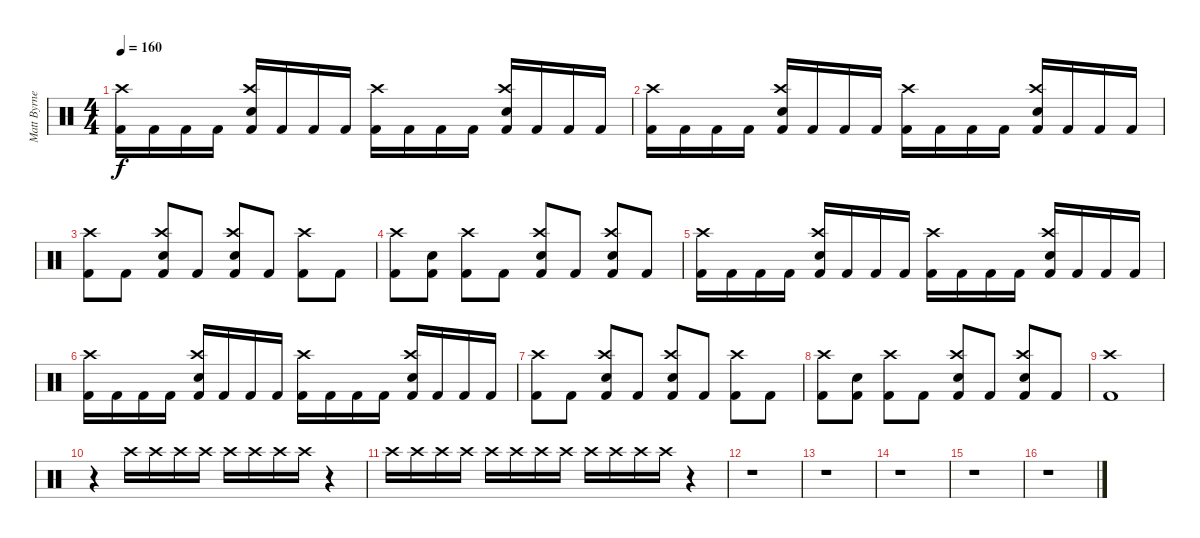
\track ("Matt Byrne" "Matt Byrne") {instrument percussion}
\staff {score}
\articulation defaults
\ts (4 4)
\tempo 160
\clef neutral
\ks c
("Kick (hit) 2" "Crash high (hit)").16{dy f} "Kick (hit) 2".16 "Kick (hit) 2".16 "Kick (hit) 2".16 ("Kick (hit) 2" "Snare (hit) 2" "Crash high (hit)").16 "Kick (hit) 2".16 "Kick (hit) 2".16 "Kick (hit) 2".16 ("Kick (hit) 2" "Crash high (hit)").16 "Kick (hit) 2".16 "Kick (hit) 2".16 "Kick (hit) 2".16 ("Kick (hit) 2" "Snare (hit) 2" "Crash high (hit)").16 "Kick (hit) 2".16 "Kick (hit) 2".16 "Kick (hit) 2".16 |
("Kick (hit) 2" "Crash high (hit)").16 "Kick (hit) 2".16 "Kick (hit) 2".16 "Kick (hit) 2".16 ("Kick (hit) 2" "Snare (hit) 2" "Crash high (hit)").16 "Kick (hit) 2".16 "Kick (hit) 2".16 "Kick (hit) 2".16 ("Kick (hit) 2" "Crash high (hit)").16 "Kick (hit) 2".16 "Kick (hit) 2".16 "Kick (hit) 2".16 ("Kick (hit) 2" "Snare (hit) 2" "Crash high (hit)").16 "Kick (hit) 2".16 "Kick (hit) 2".16 "Kick (hit) 2".16 |
("Kick (hit) 2" "Crash high (hit)").8 "Kick (hit) 2".8 ("Kick (hit) 2" "Snare (hit) 2" "Crash high (hit)").8 "Kick (hit) 2".8 ("Kick (hit) 2" "Snare (hit) 2" "Crash high (hit)").8 "Kick (hit) 2".8 ("Kick (hit) 2" "Crash high (hit)").8 "Kick (hit) 2".8 |
("Kick (hit) 2" "Crash high (hit)").8 ("Kick (hit) 2" "Snare (hit) 2").8 ("Kick (hit) 2" "Crash high (hit)").8 "Kick (hit) 2".8 ("Kick (hit) 2" "Snare (hit) 2" "Crash high (hit)").8 "Kick (hit) 2".8 ("Kick (hit) 2" "Snare (hit) 2" "Crash high (hit)").8 "Kick (hit) 2".8 |
("Kick (hit) 2" "Crash high (hit)").16 "Kick (hit) 2".16 "Kick (hit) 2".16 "Kick (hit) 2".16 ("Kick (hit) 2" "Snare (hit) 2" "Crash high (hit)").16 "Kick (hit) 2".16 "Kick (hit) 2".16 "Kick (hit) 2".16 ("Kick (hit) 2" "Crash high (hit)").16 "Kick (hit) 2".16 "Kick (hit) 2".16 "Kick (hit) 2".16 ("Kick (hit) 2" "Snare (hit) 2" "Crash high (hit)").16 "Kick (hit) 2".16 "Kick (hit) 2".16 "Kick (hit) 2".16 |
("Kick (hit) 2" "Crash high (hit)").16 "Kick (hit) 2".16 "Kick (hit) 2".16 "Kick (hit) 2".16 ("Kick (hit) 2" "Snare (hit) 2" "Crash high (hit)").16 "Kick (hit) 2".16 "Kick (hit) 2".16 "Kick (hit) 2".16 ("Kick (hit) 2" "Crash high (hit)").16 "Kick (hit) 2".16 "Kick (hit) 2".16 "Kick (hit) 2".16 ("Kick (hit) 2" "Snare (hit) 2" "Crash high (hit)").16 "Kick (hit) 2".16 "Kick (hit) 2".16 "Kick (hit) 2".16 |
("Kick (hit) 2" "Crash high (hit)").8 "Kick (hit) 2".8 ("Kick (hit) 2" "Snare (hit) 2" "Crash high (hit)").8 "Kick (hit) 2".8 ("Kick (hit) 2" "Snare (hit) 2" "Crash high (hit)").8 "Kick (hit) 2".8 ("Kick (hit) 2" "Crash high (hit)").8 "Kick (hit) 2".8 |
("Kick (hit) 2" "Crash high (hit)").8 ("Kick (hit) 2" "Snare (hit) 2").8 ("Kick (hit) 2" "Crash high (hit)").8 "Kick (hit) 2".8 ("Kick (hit) 2" "Snare (hit) 2" "Crash high (hit)").8 "Kick (hit) 2".8 ("Kick (hit) 2" "Snare (hit) 2" "Crash high (hit)").8 "Kick (hit) 2".8 |
\section ("" "")
("Kick (hit) 2" "Crash high (hit)").1 |
r.4{volume 0} "Crash high (hit)".16{volume 7} "Crash high (hit)".16 "Crash high (hit)".16 "Crash high (hit)".16 "Crash high (hit)".16 "Crash high (hit)".16 "Crash high (hit)".16 "Crash high (hit)".16 r.4 |
"Crash high (hit)".16{volume 16} "Crash high (hit)".16 "Crash high (hit)".16 "Crash high (hit)".16 "Crash high (hit)".16 "Crash high (hit)".16 "Crash high (hit)".16 "Crash high (hit)".16 "Crash high (hit)".16 "Crash high (hit)".16 "Crash high (hit)".16 "Crash high (hit)".16 r.4 |
r.1 |
r.1 |
r.1 |
r.1 |
r.1
